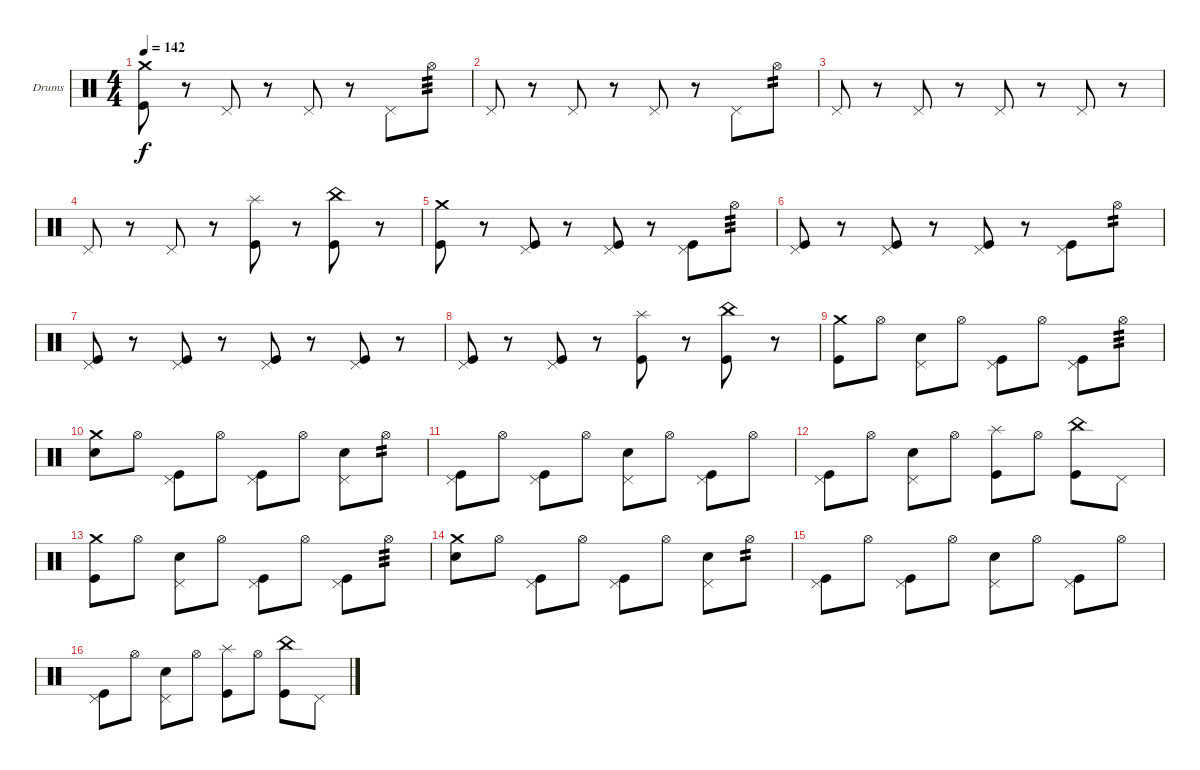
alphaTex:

\bracketExtendMode groupsimilarinstruments
\firstSystemTrackNameOrientation horizontal
\otherSystemsTrackNameOrientation horizontal
\track ("Drumkit" "Drums") {solo instrument percussion}
\staff {score}
\articulation defaults
\ts (4 4)
\tempo 142
\clef neutral
\ks c
("Kick (hit)" "Crash medium (hit)").8{dy f} r.8 "Pedal Hi-Hat (hit)".8 r.8 "Pedal Hi-Hat (hit)".8 r.8 "Pedal Hi-Hat (hit)".8 "Hi-Hat (open)".8{tp 3} |
"Pedal Hi-Hat (hit)".8 r.8 "Pedal Hi-Hat (hit)".8 r.8 "Pedal Hi-Hat (hit)".8 r.8 "Pedal Hi-Hat (hit)".8 "Hi-Hat (open)".8{tp 2} |
"Pedal Hi-Hat (hit)".8 r.8 "Pedal Hi-Hat (hit)".8 r.8 "Pedal Hi-Hat (hit)".8 r.8 "Pedal Hi-Hat (hit)".8 r.8 |
"Pedal Hi-Hat (hit)".8 r.8 "Pedal Hi-Hat (hit)".8 r.8 ("Splash (hit)" "Kick (hit)").8 r.8 ("China (hit)" "Kick (hit)").8 r.8 |
("Kick (hit)" "Crash medium (hit)").8 r.8 ("Pedal Hi-Hat (hit)" "Kick (hit)").8 r.8 ("Pedal Hi-Hat (hit)" "Kick (hit)").8 r.8 ("Pedal Hi-Hat (hit)" "Kick (hit)").8 "Hi-Hat (open)".8{tp 3} |
("Pedal Hi-Hat (hit)" "Kick (hit)").8 r.8 ("Pedal Hi-Hat (hit)" "Kick (hit)").8 r.8 ("Pedal Hi-Hat (hit)" "Kick (hit)").8 r.8 ("Pedal Hi-Hat (hit)" "Kick (hit)").8 "Hi-Hat (open)".8{tp 2} |
("Pedal Hi-Hat (hit)" "Kick (hit)").8 r.8 ("Pedal Hi-Hat (hit)" "Kick (hit)").8 r.8 ("Pedal Hi-Hat (hit)" "Kick (hit)").8 r.8 ("Pedal Hi-Hat (hit)" "Kick (hit)").8 r.8 |
("Pedal Hi-Hat (hit)" "Kick (hit)").8 r.8 ("Pedal Hi-Hat (hit)" "Kick (hit)").8 r.8 ("Splash (hit)" "Kick (hit)").8 r.8 ("China (hit)" "Kick (hit)").8 r.8 |
("Kick (hit)" "Crash medium (hit)").8 "Hi-Hat (open)".8 ("Pedal Hi-Hat (hit)" "Snare (hit) 2").8 "Hi-Hat (open)".8 ("Pedal Hi-Hat (hit)" "Kick (hit)").8 "Hi-Hat (open)".8 ("Pedal Hi-Hat (hit)" "Kick (hit)").8 "Hi-Hat (open)".8{tp 3} |
("Crash medium (hit)" "Snare (hit) 2").8 "Hi-Hat (open)".8 ("Pedal Hi-Hat (hit)" "Kick (hit)").8 "Hi-Hat (open)".8 ("Pedal Hi-Hat (hit)" "Kick (hit)").8 "Hi-Hat (open)".8 ("Pedal Hi-Hat (hit)" "Snare (hit) 2").8 "Hi-Hat (open)".8{tp 2} |
("Pedal Hi-Hat (hit)" "Kick (hit)").8 "Hi-Hat (open)".8 ("Pedal Hi-Hat (hit)" "Kick (hit)").8 "Hi-Hat (open)".8 ("Pedal Hi-Hat (hit)" "Snare (hit) 2").8 "Hi-Hat (open)".8 ("Pedal Hi-Hat (hit)" "Kick (hit)").8 "Hi-Hat (open)".8 |
("Pedal Hi-Hat (hit)" "Kick (hit)").8 "Hi-Hat (open)".8 ("Pedal Hi-Hat (hit)" "Snare (hit) 2").8 "Hi-Hat (open)".8 ("Splash (hit)" "Kick (hit)").8 "Hi-Hat (open)".8 ("China (hit)" "Kick (hit)").8 "Pedal Hi-Hat (hit)".8 |
("Kick (hit)" "Crash medium (hit)").8 "Hi-Hat (open)".8 ("Pedal Hi-Hat (hit)" "Snare (hit) 2").8 "Hi-Hat (open)".8 ("Pedal Hi-Hat (hit)" "Kick (hit)").8 "Hi-Hat (open)".8 ("Pedal Hi-Hat (hit)" "Kick (hit)").8 "Hi-Hat (open)".8{tp 3} |
("Crash medium (hit)" "Snare (hit) 2").8 "Hi-Hat (open)".8 ("Pedal Hi-Hat (hit)" "Kick (hit)").8 "Hi-Hat (open)".8 ("Pedal Hi-Hat (hit)" "Kick (hit)").8 "Hi-Hat (open)".8 ("Pedal Hi-Hat (hit)" "Snare (hit) 2").8 "Hi-Hat (open)".8{tp 2} |
("Pedal Hi-Hat (hit)" "Kick (hit)").8 "Hi-Hat (open)".8 ("Pedal Hi-Hat (hit)" "Kick (hit)").8 "Hi-Hat (open)".8 ("Pedal Hi-Hat (hit)" "Snare (hit) 2").8 "Hi-Hat (open)".8 ("Pedal Hi-Hat (hit)" "Kick (hit)").8 "Hi-Hat (open)".8 |
("Pedal Hi-Hat (hit)" "Kick (hit)").8 "Hi-Hat (open)".8 ("Pedal Hi-Hat (hit)" "Snare (hit) 2").8 "Hi-Hat (open)".8 ("Splash (hit)" "Kick (hit)").8 "Hi-Hat (open)".8 ("China (hit)" "Kick (hit)").8 "Pedal Hi-Hat (hit)".8
